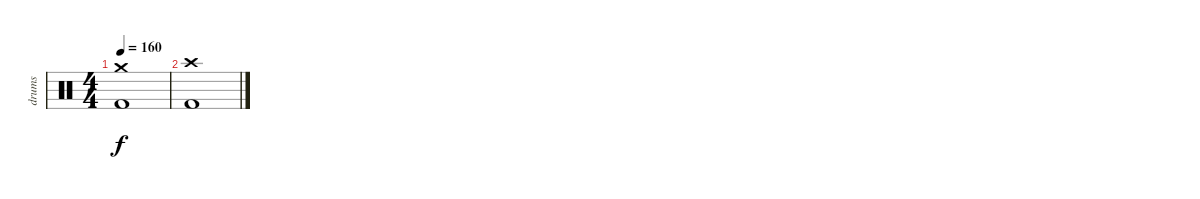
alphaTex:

\track ("drums" "drums") {instrument percussion}
\staff {score}
\articulation defaults
\ts (4 4)
\tempo 160
\clef neutral
\ks c
("Crash medium (hit)" "Kick (hit) 2").1{dy f} |
("Crash high (hit)" "Kick (hit) 2").1
